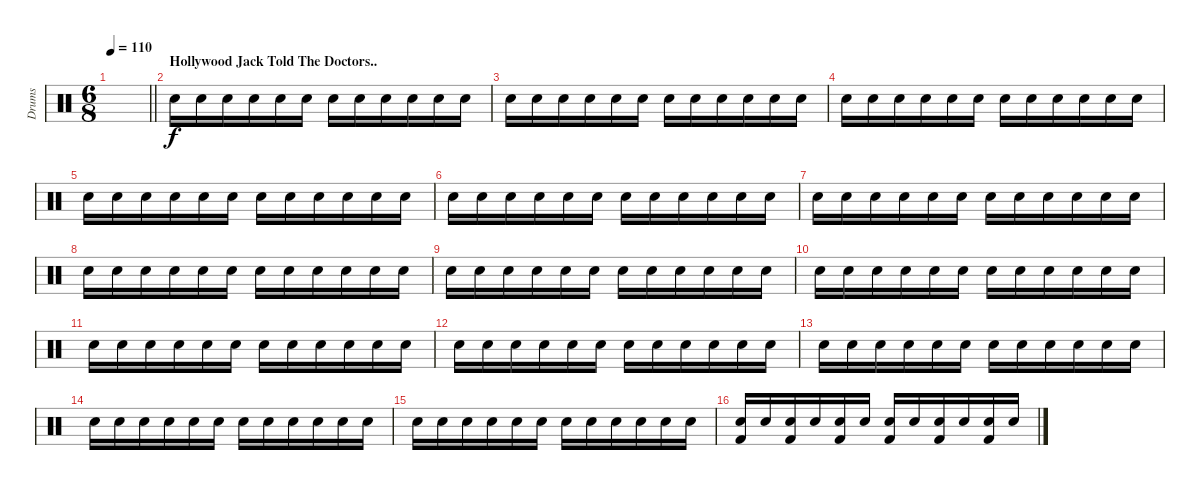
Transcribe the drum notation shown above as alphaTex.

\track ("Drums" "Drums") {instrument percussion}
\staff {score}
\articulation defaults
\ts (6 8)
\tempo 110
\clef neutral
\barLineRight lightlight
\ks c
|
\section ("" "Hollywood Jack Told The Doctors..")
"Electric Snare (hit)".16{volume 7} "Electric Snare (hit)".16 "Electric Snare (hit)".16 "Electric Snare (hit)".16 "Electric Snare (hit)".16 "Electric Snare (hit)".16 "Electric Snare (hit)".16 "Electric Snare (hit)".16 "Electric Snare (hit)".16 "Electric Snare (hit)".16 "Electric Snare (hit)".16 "Electric Snare (hit)".16 |
"Electric Snare (hit)".16 "Electric Snare (hit)".16 "Electric Snare (hit)".16 "Electric Snare (hit)".16 "Electric Snare (hit)".16 "Electric Snare (hit)".16 "Electric Snare (hit)".16 "Electric Snare (hit)".16 "Electric Snare (hit)".16 "Electric Snare (hit)".16 "Electric Snare (hit)".16 "Electric Snare (hit)".16 |
"Electric Snare (hit)".16 "Electric Snare (hit)".16 "Electric Snare (hit)".16 "Electric Snare (hit)".16 "Electric Snare (hit)".16 "Electric Snare (hit)".16 "Electric Snare (hit)".16 "Electric Snare (hit)".16 "Electric Snare (hit)".16 "Electric Snare (hit)".16 "Electric Snare (hit)".16 "Electric Snare (hit)".16 |
"Electric Snare (hit)".16 "Electric Snare (hit)".16 "Electric Snare (hit)".16 "Electric Snare (hit)".16 "Electric Snare (hit)".16 "Electric Snare (hit)".16 "Electric Snare (hit)".16 "Electric Snare (hit)".16 "Electric Snare (hit)".16 "Electric Snare (hit)".16 "Electric Snare (hit)".16 "Electric Snare (hit)".16 |
"Electric Snare (hit)".16 "Electric Snare (hit)".16 "Electric Snare (hit)".16 "Electric Snare (hit)".16 "Electric Snare (hit)".16 "Electric Snare (hit)".16 "Electric Snare (hit)".16 "Electric Snare (hit)".16 "Electric Snare (hit)".16 "Electric Snare (hit)".16 "Electric Snare (hit)".16 "Electric Snare (hit)".16 |
"Electric Snare (hit)".16 "Electric Snare (hit)".16 "Electric Snare (hit)".16 "Electric Snare (hit)".16 "Electric Snare (hit)".16 "Electric Snare (hit)".16 "Electric Snare (hit)".16{volume 13} "Electric Snare (hit)".16 "Electric Snare (hit)".16 "Electric Snare (hit)".16 "Electric Snare (hit)".16 "Electric Snare (hit)".16 |
"Electric Snare (hit)".16 "Electric Snare (hit)".16 "Electric Snare (hit)".16 "Electric Snare (hit)".16 "Electric Snare (hit)".16 "Electric Snare (hit)".16 "Electric Snare (hit)".16 "Electric Snare (hit)".16 "Electric Snare (hit)".16 "Electric Snare (hit)".16 "Electric Snare (hit)".16 "Electric Snare (hit)".16 |
"Electric Snare (hit)".16 "Electric Snare (hit)".16 "Electric Snare (hit)".16 "Electric Snare (hit)".16 "Electric Snare (hit)".16 "Electric Snare (hit)".16 "Electric Snare (hit)".16 "Electric Snare (hit)".16 "Electric Snare (hit)".16 "Electric Snare (hit)".16 "Electric Snare (hit)".16 "Electric Snare (hit)".16 |
"Electric Snare (hit)".16 "Electric Snare (hit)".16 "Electric Snare (hit)".16 "Electric Snare (hit)".16 "Electric Snare (hit)".16 "Electric Snare (hit)".16 "Electric Snare (hit)".16 "Electric Snare (hit)".16 "Electric Snare (hit)".16 "Electric Snare (hit)".16 "Electric Snare (hit)".16 "Electric Snare (hit)".16 |
"Electric Snare (hit)".16 "Electric Snare (hit)".16 "Electric Snare (hit)".16 "Electric Snare (hit)".16 "Electric Snare (hit)".16 "Electric Snare (hit)".16 "Electric Snare (hit)".16 "Electric Snare (hit)".16 "Electric Snare (hit)".16 "Electric Snare (hit)".16 "Electric Snare (hit)".16 "Electric Snare (hit)".16 |
"Electric Snare (hit)".16 "Electric Snare (hit)".16 "Electric Snare (hit)".16 "Electric Snare (hit)".16 "Electric Snare (hit)".16 "Electric Snare (hit)".16 "Electric Snare (hit)".16 "Electric Snare (hit)".16 "Electric Snare (hit)".16 "Electric Snare (hit)".16 "Electric Snare (hit)".16 "Electric Snare (hit)".16 |
"Electric Snare (hit)".16 "Electric Snare (hit)".16 "Electric Snare (hit)".16 "Electric Snare (hit)".16 "Electric Snare (hit)".16 "Electric Snare (hit)".16 "Electric Snare (hit)".16 "Electric Snare (hit)".16 "Electric Snare (hit)".16 "Electric Snare (hit)".16 "Electric Snare (hit)".16 "Electric Snare (hit)".16 |
"Electric Snare (hit)".16 "Electric Snare (hit)".16 "Electric Snare (hit)".16 "Electric Snare (hit)".16 "Electric Snare (hit)".16 "Electric Snare (hit)".16 "Electric Snare (hit)".16 "Electric Snare (hit)".16 "Electric Snare (hit)".16 "Electric Snare (hit)".16 "Electric Snare (hit)".16 "Electric Snare (hit)".16 |
"Electric Snare (hit)".16 "Electric Snare (hit)".16 "Electric Snare (hit)".16 "Electric Snare (hit)".16 "Electric Snare (hit)".16 "Electric Snare (hit)".16 "Electric Snare (hit)".16 "Electric Snare (hit)".16 "Electric Snare (hit)".16 "Electric Snare (hit)".16 "Electric Snare (hit)".16 "Electric Snare (hit)".16 |
("Electric Snare (hit)" "Kick (hit) 2").16 "Electric Snare (hit)".16 ("Electric Snare (hit)" "Kick (hit) 2").16 "Electric Snare (hit)".16 ("Electric Snare (hit)" "Kick (hit) 2").16 "Electric Snare (hit)".16 ("Electric Snare (hit)" "Kick (hit) 2").16 "Electric Snare (hit)".16 ("Electric Snare (hit)" "Kick (hit) 2").16 "Electric Snare (hit)".16 ("Electric Snare (hit)" "Kick (hit) 2").16 "Electric Snare (hit)".16
